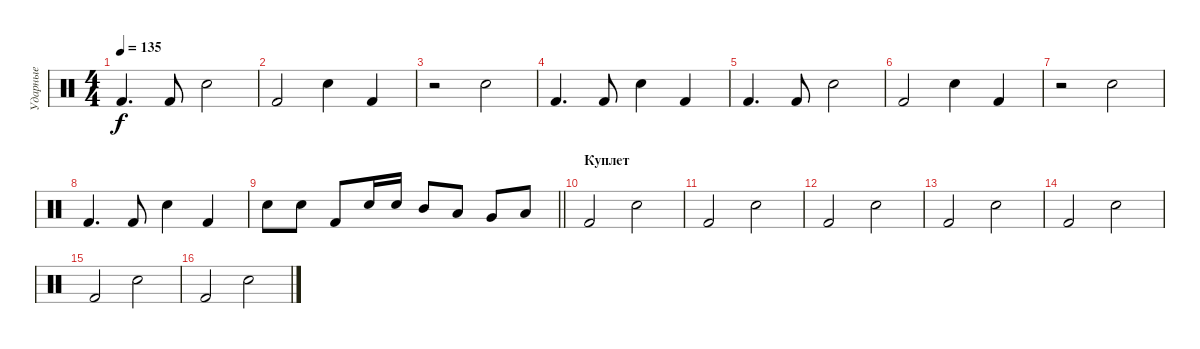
\track ("Ударные" "Ударные") {instrument percussion}
\staff {score}
\articulation defaults
\ts (4 4)
\tempo 135
\clef neutral
\ks c "Kick (hit) 2".4{d dy f} "Kick (hit) 2".8 "Snare (hit) 2".2
|
"Kick (hit) 2".2 "Snare (hit) 2".4 "Kick (hit) 2".4 |
r.2 "Snare (hit) 2".2 |
"Kick (hit) 2".4{d} "Kick (hit) 2".8 "Snare (hit) 2".4 "Kick (hit) 2".4 |
"Kick (hit) 2".4{d} "Kick (hit) 2".8 "Snare (hit) 2".2 |
"Kick (hit) 2".2 "Snare (hit) 2".4 "Kick (hit) 2".4 |
r.2 "Snare (hit) 2".2 |
"Kick (hit) 2".4{d} "Kick (hit) 2".8 "Snare (hit) 2".4 "Kick (hit) 2".4 |
\barLineRight lightlight "Snare (hit) 2".8 "Snare (hit) 2".8 "Kick (hit) 2".8 "Snare (hit) 2".16 "Snare (hit) 2".16 "Mid Tom (hit)".8 "Low Tom (hit)".8 "Very Low Tom (hit)".8 "Low Floor Tom (hit)".8
|
\section ("" "Куплет")
"Kick (hit) 2".2 "Snare (hit) 2".2 |
"Kick (hit) 2".2 "Snare (hit) 2".2 |
"Kick (hit) 2".2 "Snare (hit) 2".2 |
"Kick (hit) 2".2 "Snare (hit) 2".2 |
"Kick (hit) 2".2 "Snare (hit) 2".2 |
"Kick (hit) 2".2 "Snare (hit) 2".2 |
"Kick (hit) 2".2 "Snare (hit) 2".2
